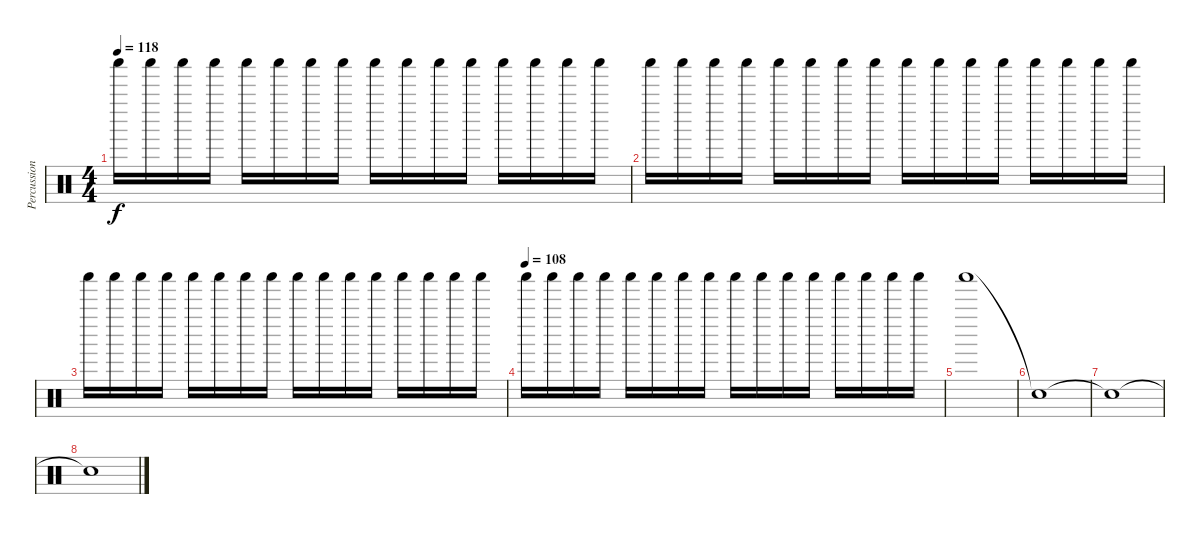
\track ("Percussion" "Percussion") {instrument percussion}
\staff {score}
\articulation defaults
\ts (4 4)
\tempo 118
\clef neutral
\ks c "Shaker (hit)".16{dy f} "Shaker (hit)".16 "Shaker (hit)".16 "Shaker (hit)".16 "Shaker (hit)".16 "Shaker (hit)".16 "Shaker (hit)".16 "Shaker (hit)".16 "Shaker (hit)".16 "Shaker (hit)".16 "Shaker (hit)".16 "Shaker (hit)".16 "Shaker (hit)".16 "Shaker (hit)".16 "Shaker (hit)".16 "Shaker (hit)".16
|
"Shaker (hit)".16 "Shaker (hit)".16 "Shaker (hit)".16 "Shaker (hit)".16 "Shaker (hit)".16 "Shaker (hit)".16 "Shaker (hit)".16 "Shaker (hit)".16 "Shaker (hit)".16 "Shaker (hit)".16 "Shaker (hit)".16 "Shaker (hit)".16 "Shaker (hit)".16 "Shaker (hit)".16 "Shaker (hit)".16 "Shaker (hit)".16 |
"Shaker (hit)".16 "Shaker (hit)".16 "Shaker (hit)".16 "Shaker (hit)".16 "Shaker (hit)".16 "Shaker (hit)".16 "Shaker (hit)".16 "Shaker (hit)".16 "Shaker (hit)".16 "Shaker (hit)".16 "Shaker (hit)".16 "Shaker (hit)".16 "Shaker (hit)".16 "Shaker (hit)".16 "Shaker (hit)".16 "Shaker (hit)".16 |
\tempo (108)
"Shaker (hit)".16 "Shaker (hit)".16 "Shaker (hit)".16 "Shaker (hit)".16 "Shaker (hit)".16 "Shaker (hit)".16 "Shaker (hit)".16 "Shaker (hit)".16 "Shaker (hit)".16 "Shaker (hit)".16 "Shaker (hit)".16 "Shaker (hit)".16 "Shaker (hit)".16 "Shaker (hit)".16 "Shaker (hit)".16 "Shaker (hit)".16 |
"Shaker (hit)".1 |
"Snare (hit)"{t}.1 |
"Snare (hit)"{t}.1 |
"Snare (hit)"{t}.1
